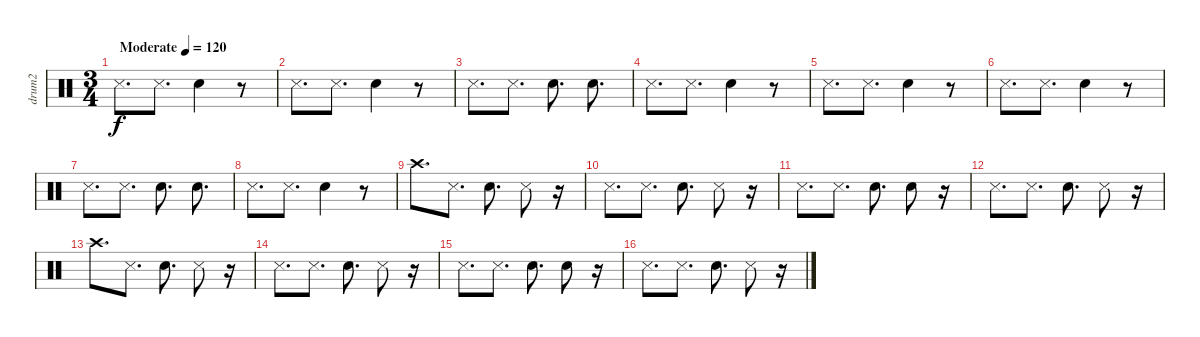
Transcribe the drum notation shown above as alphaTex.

\track ("drum2" "drum2") {instrument percussion}
\staff {score}
\articulation defaults
\ts (3 4)
\tempo (120 "Moderate")
\clef neutral
\ks c "Snare (side stick) 3".8{d dy f} "Snare (side stick) 3".8{d} "Snare (hit) 2".4
r.8 |
"Snare (side stick) 3".8{d} "Snare (side stick) 3".8{d} "Snare (hit) 2".4 r.8 |
"Snare (side stick) 3".8{d} "Snare (side stick) 3".8{d} "Snare (hit) 2".8{d} "Snare (hit) 2".8{d} |
"Snare (side stick) 3".8{d} "Snare (side stick) 3".8{d} "Snare (hit) 2".4 r.8 |
"Snare (side stick) 3".8{d} "Snare (side stick) 3".8{d} "Snare (hit) 2".4 r.8 |
"Snare (side stick) 3".8{d} "Snare (side stick) 3".8{d} "Snare (hit) 2".4 r.8 |
"Snare (side stick) 3".8{d} "Snare (side stick) 3".8{d} "Snare (hit) 2".8{d} "Snare (hit) 2".8{d} |
"Snare (side stick) 3".8{d} "Snare (side stick) 3".8{d} "Snare (hit) 2".4 r.8 |
"Crash high (hit)".8{d} "Snare (side stick) 3".8{d} "Snare (hit) 2".8{d} "Snare (side stick) 3".8 r.16 |
"Snare (side stick) 3".8{d} "Snare (side stick) 3".8{d} "Snare (hit) 2".8{d} "Snare (side stick) 3".8 r.16 |
"Snare (side stick) 3".8{d} "Snare (side stick) 3".8{d} "Snare (hit) 2".8{d} "Snare (hit) 2".8 r.16 |
"Snare (side stick) 3".8{d} "Snare (side stick) 3".8{d} "Snare (hit) 2".8{d} "Snare (side stick) 3".8 r.16 |
"Crash high (hit)".8{d} "Snare (side stick) 3".8{d} "Snare (hit) 2".8{d} "Snare (side stick) 3".8 r.16 |
"Snare (side stick) 3".8{d} "Snare (side stick) 3".8{d} "Snare (hit) 2".8{d} "Snare (side stick) 3".8 r.16 |
"Snare (side stick) 3".8{d} "Snare (side stick) 3".8{d} "Snare (hit) 2".8{d} "Snare (hit) 2".8 r.16 |
"Snare (side stick) 3".8{d} "Snare (side stick) 3".8{d} "Snare (hit) 2".8{d} "Snare (side stick) 3".8 r.16
